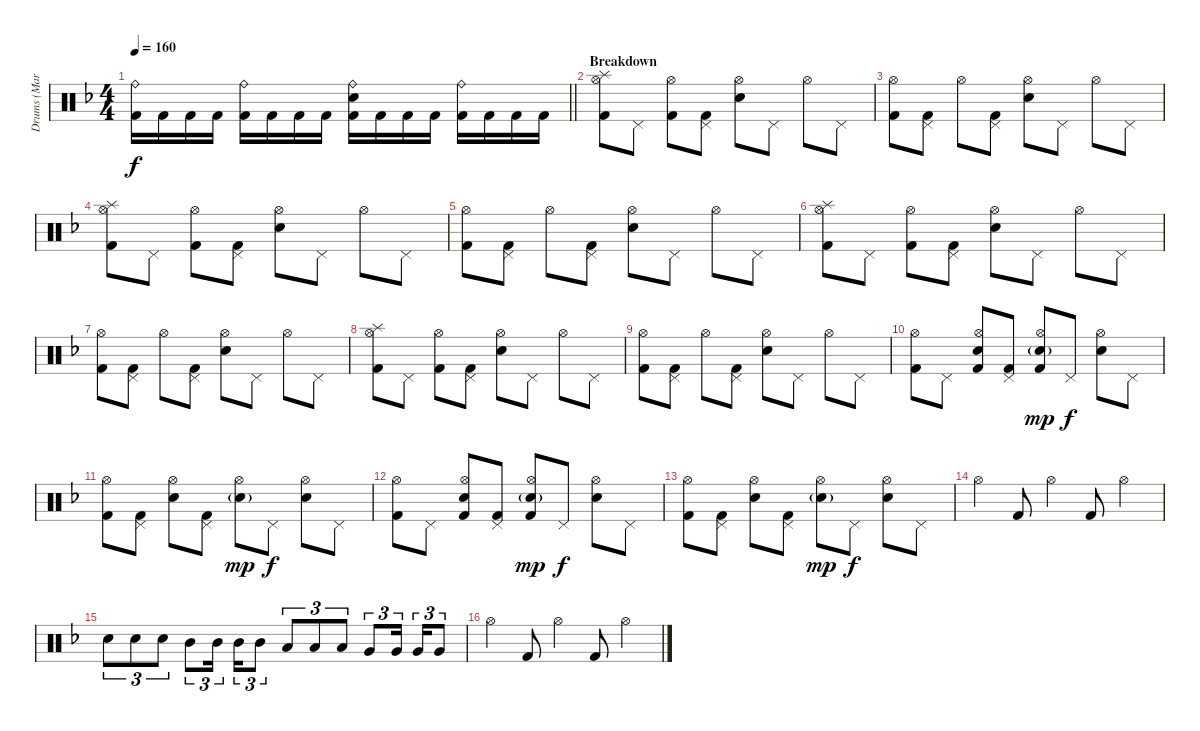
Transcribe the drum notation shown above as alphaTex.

\track ("Drums (Mark)" "Drums (Mar") {instrument percussion}
\staff {score}
\articulation defaults
\ts (4 4)
\tempo 160
\clef neutral
\barLineRight lightlight
\ks dminor
("Ride (bell)" "Kick (hit) 2").16{dy f} "Kick (hit) 2".16 "Kick (hit) 2".16 "Kick (hit) 2".16 ("Ride (bell)" "Kick (hit) 2").16 "Kick (hit) 2".16 "Kick (hit) 2".16 "Kick (hit) 2".16 ("Ride (bell)" "Snare (hit) 2" "Kick (hit) 2").16 "Kick (hit) 2".16 "Kick (hit) 2".16 "Kick (hit) 2".16 ("Ride (bell)" "Kick (hit) 2").16 "Kick (hit) 2".16 "Kick (hit) 2".16 "Kick (hit) 2".16 |
\section ("" "Breakdown")
("Splash (hit)" "Hi-Hat (open)" "Kick (hit) 2").8 "Pedal Hi-Hat (hit)".8 ("Hi-Hat (open)" "Kick (hit) 2").8 ("Pedal Hi-Hat (hit)" "Kick (hit) 2").8 ("Hi-Hat (open)" "Electric Snare (hit)").8 "Pedal Hi-Hat (hit)".8 "Hi-Hat (open)".8 "Pedal Hi-Hat (hit)".8 |
("Hi-Hat (open)" "Kick (hit) 2").8 ("Pedal Hi-Hat (hit)" "Kick (hit) 2").8 "Hi-Hat (open)".8 ("Pedal Hi-Hat (hit)" "Kick (hit) 2").8 ("Hi-Hat (open)" "Electric Snare (hit)").8 "Pedal Hi-Hat (hit)".8 "Hi-Hat (open)".8 "Pedal Hi-Hat (hit)".8 |
("Splash (hit)" "Hi-Hat (open)" "Kick (hit) 2").8 "Pedal Hi-Hat (hit)".8 ("Hi-Hat (open)" "Kick (hit) 2").8 ("Pedal Hi-Hat (hit)" "Kick (hit) 2").8 ("Hi-Hat (open)" "Electric Snare (hit)").8 "Pedal Hi-Hat (hit)".8 "Hi-Hat (open)".8 "Pedal Hi-Hat (hit)".8 |
("Hi-Hat (open)" "Kick (hit) 2").8 ("Pedal Hi-Hat (hit)" "Kick (hit) 2").8 "Hi-Hat (open)".8 ("Pedal Hi-Hat (hit)" "Kick (hit) 2").8 ("Hi-Hat (open)" "Electric Snare (hit)").8 "Pedal Hi-Hat (hit)".8 "Hi-Hat (open)".8 "Pedal Hi-Hat (hit)".8 |
("Splash (hit)" "Hi-Hat (open)" "Kick (hit) 2").8 "Pedal Hi-Hat (hit)".8 ("Hi-Hat (open)" "Kick (hit) 2").8 ("Pedal Hi-Hat (hit)" "Kick (hit) 2").8 ("Hi-Hat (open)" "Electric Snare (hit)").8 "Pedal Hi-Hat (hit)".8 "Hi-Hat (open)".8 "Pedal Hi-Hat (hit)".8 |
("Hi-Hat (open)" "Kick (hit) 2").8 ("Pedal Hi-Hat (hit)" "Kick (hit) 2").8 "Hi-Hat (open)".8 ("Pedal Hi-Hat (hit)" "Kick (hit) 2").8 ("Hi-Hat (open)" "Electric Snare (hit)").8 "Pedal Hi-Hat (hit)".8 "Hi-Hat (open)".8 "Pedal Hi-Hat (hit)".8 |
("Splash (hit)" "Hi-Hat (open)" "Kick (hit) 2").8 "Pedal Hi-Hat (hit)".8 ("Hi-Hat (open)" "Kick (hit) 2").8 ("Pedal Hi-Hat (hit)" "Kick (hit) 2").8 ("Hi-Hat (open)" "Electric Snare (hit)").8 "Pedal Hi-Hat (hit)".8 "Hi-Hat (open)".8 "Pedal Hi-Hat (hit)".8 |
("Hi-Hat (open)" "Kick (hit) 2").8 ("Pedal Hi-Hat (hit)" "Kick (hit) 2").8 "Hi-Hat (open)".8 ("Pedal Hi-Hat (hit)" "Kick (hit) 2").8 ("Hi-Hat (open)" "Electric Snare (hit)").8 "Pedal Hi-Hat (hit)".8 "Hi-Hat (open)".8 "Pedal Hi-Hat (hit)".8 |
("Hi-Hat (open)" "Kick (hit) 2").8 "Pedal Hi-Hat (hit)".8 ("Hi-Hat (open)" "Electric Snare (hit)" "Kick (hit) 2").8 ("Pedal Hi-Hat (hit)" "Kick (hit) 2").8 ("Hi-Hat (open)" "Electric Snare (hit)"{g} "Kick (hit) 2").8{dy mp} "Pedal Hi-Hat (hit)".8{dy f} ("Hi-Hat (open)" "Electric Snare (hit)").8 "Pedal Hi-Hat (hit)".8 |
("Hi-Hat (open)" "Kick (hit) 2").8 ("Pedal Hi-Hat (hit)" "Kick (hit) 2").8 ("Hi-Hat (open)" "Electric Snare (hit)").8 ("Pedal Hi-Hat (hit)" "Kick (hit) 2").8 ("Hi-Hat (open)" "Electric Snare (hit)"{g}).8{dy mp} "Pedal Hi-Hat (hit)".8{dy f} ("Hi-Hat (open)" "Electric Snare (hit)").8 "Pedal Hi-Hat (hit)".8 |
("Hi-Hat (open)" "Kick (hit) 2").8 "Pedal Hi-Hat (hit)".8 ("Hi-Hat (open)" "Electric Snare (hit)" "Kick (hit) 2").8 ("Pedal Hi-Hat (hit)" "Kick (hit) 2").8 ("Hi-Hat (open)" "Electric Snare (hit)"{g} "Kick (hit) 2").8{dy mp} "Pedal Hi-Hat (hit)".8{dy f} ("Hi-Hat (open)" "Electric Snare (hit)").8 "Pedal Hi-Hat (hit)".8 |
("Hi-Hat (open)" "Kick (hit) 2").8 ("Pedal Hi-Hat (hit)" "Kick (hit) 2").8 ("Hi-Hat (open)" "Electric Snare (hit)").8 ("Pedal Hi-Hat (hit)" "Kick (hit) 2").8 ("Hi-Hat (open)" "Electric Snare (hit)"{g}).8{dy mp} "Pedal Hi-Hat (hit)".8{dy f} ("Hi-Hat (open)" "Electric Snare (hit)").8 "Pedal Hi-Hat (hit)".8 |
"Hi-Hat (open)".4 "Kick (hit) 2".8 "Hi-Hat (open)".4 "Kick (hit) 2".8 "Hi-Hat (open)".4 |
"Snare (hit) 2".8{tu (3 2)} "Snare (hit) 2".8{tu (3 2)} "Snare (hit) 2".8{tu (3 2)} "Mid Tom (hit)".8{tu (3 2)} "Mid Tom (hit)".16{tu (3 2) beam splitsecondary} "Mid Tom (hit)".16{tu (3 2)} "Mid Tom (hit)".8{tu (3 2)} "Low Tom (hit)".8{tu (3 2)} "Low Tom (hit)".8{tu (3 2)} "Low Tom (hit)".8{tu (3 2)} "Very Low Tom (hit)".8{tu (3 2)} "Very Low Tom (hit)".16{tu (3 2) beam splitsecondary} "Very Low Tom (hit)".16{tu (3 2)} "Very Low Tom (hit)".8{tu (3 2)} |
"Hi-Hat (open)".4 "Kick (hit) 2".8 "Hi-Hat (open)".4 "Kick (hit) 2".8 "Hi-Hat (open)".4
